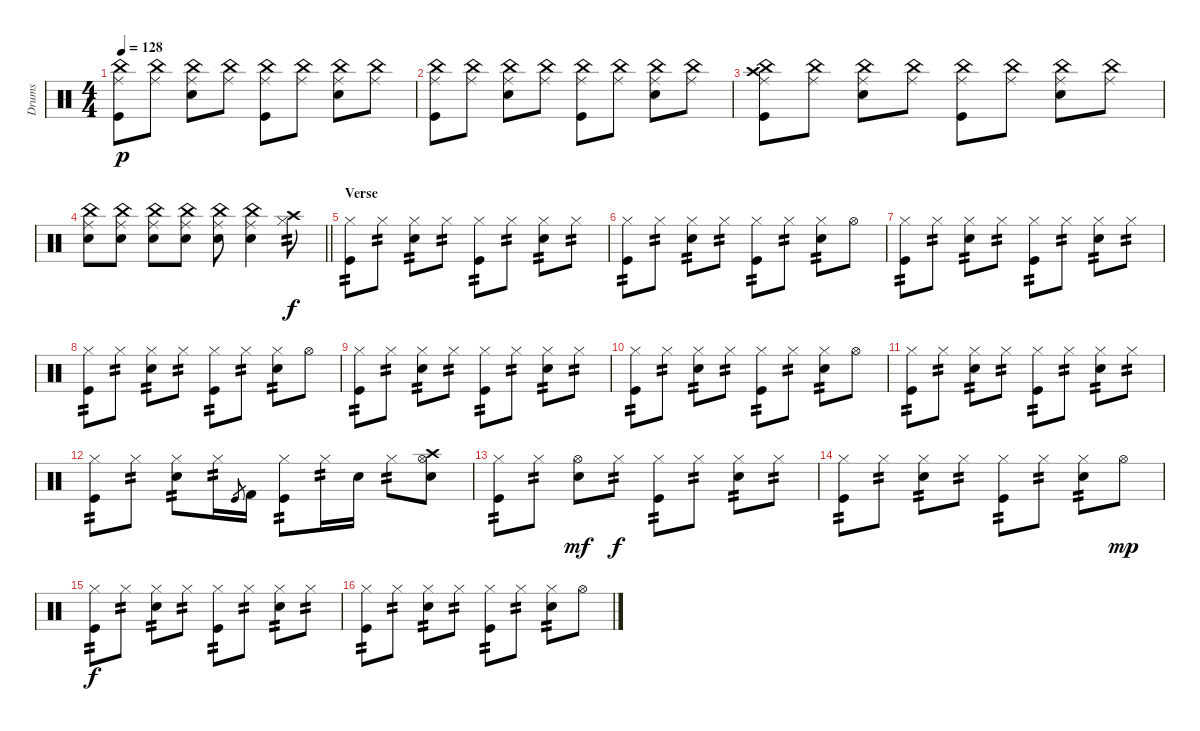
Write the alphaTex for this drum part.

\track ("Drums" "Drums") {instrument percussion}
\staff {score}
\articulation defaults
\ts (4 4)
\tempo 128
\clef neutral
\ks c
("Ride (middle)" "China (hit)" "Kick (hit)").8{dy p} ("Ride (middle)" "China (hit)").8 ("Ride (middle)" "China (hit)" "Electric Snare (hit)").8 ("Ride (middle)" "China (hit)").8 ("Ride (middle)" "China (hit)" "Kick (hit)").8 ("Ride (middle)" "China (hit)").8 ("Ride (middle)" "China (hit)" "Electric Snare (hit)").8 ("Ride (middle)" "China (hit)").8 |
("Ride (middle)" "China (hit)" "Kick (hit)").8 ("Ride (middle)" "China (hit)").8 ("Ride (middle)" "China (hit)" "Electric Snare (hit)").8 ("Ride (middle)" "China (hit)").8 ("Ride (middle)" "China (hit)" "Kick (hit)").8 ("Ride (middle)" "China (hit)").8 ("Ride (middle)" "China (hit)" "Electric Snare (hit)").8 ("Ride (middle)" "China (hit)").8 |
("Crash high (hit)" "Ride (middle)" "China (hit)" "Kick (hit)").8 ("Ride (middle)" "China (hit)").8 ("Ride (middle)" "China (hit)" "Electric Snare (hit)").8 ("Ride (middle)" "China (hit)").8 ("Ride (middle)" "China (hit)" "Kick (hit)").8 ("Ride (middle)" "China (hit)").8 ("Ride (middle)" "China (hit)" "Electric Snare (hit)").8 ("Ride (middle)" "China (hit)").8 |
\barLineRight lightlight
("Ride (middle)" "China (hit)" "Electric Snare (hit)").8 ("Ride (middle)" "China (hit)" "Electric Snare (hit)").8 ("Ride (middle)" "China (hit)" "Electric Snare (hit)").8 ("Ride (middle)" "China (hit)" "Electric Snare (hit)").8 ("Ride (middle)" "China (hit)" "Electric Snare (hit)").8 ("Ride (middle)" "China (hit)" "Electric Snare (hit)").4 ("Crash high (hit)" "Hi-Hat (closed)").8{tp 2 dy f} |
\section ("" "Verse")
("Hi-Hat (closed)" "Kick (hit)").8{tp 2} "Hi-Hat (closed)".8{tp 2} ("Hi-Hat (closed)" "Snare (hit) 2").8{tp 2} "Hi-Hat (closed)".8{tp 2} ("Hi-Hat (closed)" "Kick (hit)").8{tp 2} "Hi-Hat (closed)".8{tp 2} ("Hi-Hat (closed)" "Snare (hit) 2").8{tp 2} "Hi-Hat (closed)".8{tp 2} |
("Hi-Hat (closed)" "Kick (hit)").8{tp 2} "Hi-Hat (closed)".8{tp 2} ("Hi-Hat (closed)" "Snare (hit) 2").8{tp 2} "Hi-Hat (closed)".8{tp 2} ("Hi-Hat (closed)" "Kick (hit)").8{tp 2} "Hi-Hat (closed)".8{tp 2} ("Hi-Hat (closed)" "Snare (hit) 2").8{tp 2} "Hi-Hat (open)".8 |
("Hi-Hat (closed)" "Kick (hit)").8{tp 2} "Hi-Hat (closed)".8{tp 2} ("Hi-Hat (closed)" "Snare (hit) 2").8{tp 2} "Hi-Hat (closed)".8{tp 2} ("Hi-Hat (closed)" "Kick (hit)").8{tp 2} "Hi-Hat (closed)".8{tp 2} ("Hi-Hat (closed)" "Snare (hit) 2").8{tp 2} "Hi-Hat (closed)".8{tp 2} |
("Hi-Hat (closed)" "Kick (hit)").8{tp 2} "Hi-Hat (closed)".8{tp 2} ("Hi-Hat (closed)" "Snare (hit) 2").8{tp 2} "Hi-Hat (closed)".8{tp 2} ("Hi-Hat (closed)" "Kick (hit)").8{tp 2} "Hi-Hat (closed)".8{tp 2} ("Hi-Hat (closed)" "Snare (hit) 2").8{tp 2} "Hi-Hat (open)".8 |
("Hi-Hat (closed)" "Kick (hit)").8{tp 2} "Hi-Hat (closed)".8{tp 2} ("Hi-Hat (closed)" "Snare (hit) 2").8{tp 2} "Hi-Hat (closed)".8{tp 2} ("Hi-Hat (closed)" "Kick (hit)").8{tp 2} "Hi-Hat (closed)".8{tp 2} ("Hi-Hat (closed)" "Snare (hit) 2").8{tp 2} "Hi-Hat (closed)".8{tp 2} |
("Hi-Hat (closed)" "Kick (hit)").8{tp 2} "Hi-Hat (closed)".8{tp 2} ("Hi-Hat (closed)" "Snare (hit) 2").8{tp 2} "Hi-Hat (closed)".8{tp 2} ("Hi-Hat (closed)" "Kick (hit)").8{tp 2} "Hi-Hat (closed)".8{tp 2} ("Hi-Hat (closed)" "Snare (hit) 2").8{tp 2} "Hi-Hat (open)".8 |
("Hi-Hat (closed)" "Kick (hit)").8{tp 2} "Hi-Hat (closed)".8{tp 2} ("Hi-Hat (closed)" "Snare (hit) 2").8{tp 2} "Hi-Hat (closed)".8{tp 2} ("Hi-Hat (closed)" "Kick (hit)").8{tp 2} "Hi-Hat (closed)".8{tp 2} ("Hi-Hat (closed)" "Snare (hit) 2").8{tp 2} "Hi-Hat (closed)".8{tp 2} |
("Hi-Hat (closed)" "Kick (hit)").8{tp 2} "Hi-Hat (closed)".8{tp 2} ("Hi-Hat (closed)" "Snare (hit) 2").8{tp 2} "Hi-Hat (closed)".16{tp 2} "Kick (hit)".8{gr} "Kick (hit) 2".16 ("Hi-Hat (closed)" "Kick (hit)").8{tp 2} "Hi-Hat (closed)".16{tp 2} "Snare (hit) 2".16 "Hi-Hat (closed)".8{tp 2} ("Crash high (hit)" "Hi-Hat (open)" "Snare (hit) 2").8 |
("Hi-Hat (closed)" "Kick (hit)").8{tp 2} "Hi-Hat (closed)".8{tp 2} ("Hi-Hat (open)" "Snare (hit) 2").8{dy mf} "Hi-Hat (closed)".8{tp 2 dy f} ("Hi-Hat (closed)" "Kick (hit)").8{tp 2} "Hi-Hat (closed)".8{tp 2} ("Hi-Hat (closed)" "Snare (hit) 2").8{tp 2} "Hi-Hat (closed)".8{tp 2} |
("Hi-Hat (closed)" "Kick (hit)").8{tp 2} "Hi-Hat (closed)".8{tp 2} ("Hi-Hat (closed)" "Snare (hit) 2").8{tp 2} "Hi-Hat (closed)".8{tp 2} ("Hi-Hat (closed)" "Kick (hit)").8{tp 2} "Hi-Hat (closed)".8{tp 2} ("Hi-Hat (closed)" "Snare (hit) 2").8{tp 2} "Hi-Hat (open)".8{dy mp} |
("Hi-Hat (closed)" "Kick (hit)").8{tp 2 dy f} "Hi-Hat (closed)".8{tp 2} ("Hi-Hat (closed)" "Snare (hit) 2").8{tp 2} "Hi-Hat (closed)".8{tp 2} ("Hi-Hat (closed)" "Kick (hit)").8{tp 2} "Hi-Hat (closed)".8{tp 2} ("Hi-Hat (closed)" "Snare (hit) 2").8{tp 2} "Hi-Hat (closed)".8{tp 2} |
("Hi-Hat (closed)" "Kick (hit)").8{tp 2} "Hi-Hat (closed)".8{tp 2} ("Hi-Hat (closed)" "Snare (hit) 2").8{tp 2} "Hi-Hat (closed)".8{tp 2} ("Hi-Hat (closed)" "Kick (hit)").8{tp 2} "Hi-Hat (closed)".8{tp 2} ("Hi-Hat (closed)" "Snare (hit) 2").8{tp 2} "Hi-Hat (open)".8
